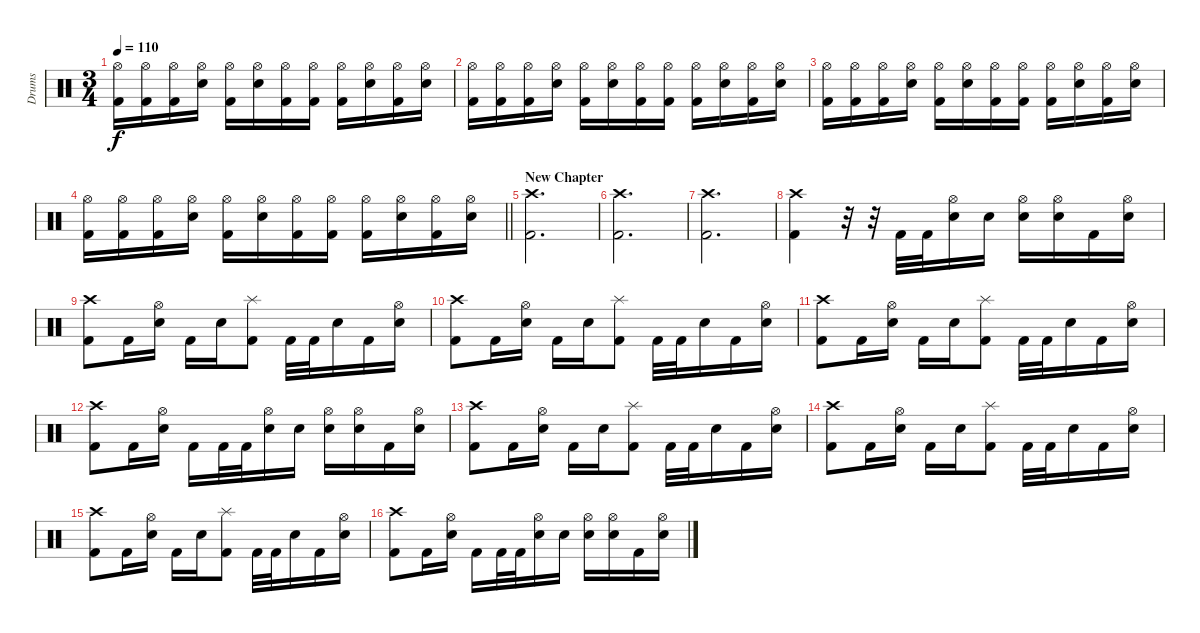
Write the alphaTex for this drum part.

\track ("Drums" "Drums") {instrument percussion}
\staff {score}
\articulation defaults
\ts (3 4)
\tempo 110
\clef neutral
\ks c
("Hi-Hat (open)" "Kick (hit) 2").16{dy f} ("Hi-Hat (open)" "Kick (hit) 2").16 ("Hi-Hat (open)" "Kick (hit) 2").16 ("Hi-Hat (open)" "Electric Snare (hit)").16 ("Hi-Hat (open)" "Kick (hit) 2").16 ("Hi-Hat (open)" "Electric Snare (hit)").16 ("Hi-Hat (open)" "Kick (hit) 2").16 ("Hi-Hat (open)" "Kick (hit) 2").16 ("Hi-Hat (open)" "Kick (hit) 2").16 ("Hi-Hat (open)" "Electric Snare (hit)").16 ("Hi-Hat (open)" "Kick (hit) 2").16 ("Hi-Hat (open)" "Electric Snare (hit)").16 |
("Hi-Hat (open)" "Kick (hit) 2").16 ("Hi-Hat (open)" "Kick (hit) 2").16 ("Hi-Hat (open)" "Kick (hit) 2").16 ("Hi-Hat (open)" "Electric Snare (hit)").16 ("Hi-Hat (open)" "Kick (hit) 2").16 ("Hi-Hat (open)" "Electric Snare (hit)").16 ("Hi-Hat (open)" "Kick (hit) 2").16 ("Hi-Hat (open)" "Kick (hit) 2").16 ("Hi-Hat (open)" "Kick (hit) 2").16 ("Hi-Hat (open)" "Electric Snare (hit)").16 ("Hi-Hat (open)" "Kick (hit) 2").16 ("Hi-Hat (open)" "Electric Snare (hit)").16 |
("Hi-Hat (open)" "Kick (hit) 2").16 ("Hi-Hat (open)" "Kick (hit) 2").16 ("Hi-Hat (open)" "Kick (hit) 2").16 ("Hi-Hat (open)" "Electric Snare (hit)").16 ("Hi-Hat (open)" "Kick (hit) 2").16 ("Hi-Hat (open)" "Electric Snare (hit)").16 ("Hi-Hat (open)" "Kick (hit) 2").16 ("Hi-Hat (open)" "Kick (hit) 2").16 ("Hi-Hat (open)" "Kick (hit) 2").16 ("Hi-Hat (open)" "Electric Snare (hit)").16 ("Hi-Hat (open)" "Kick (hit) 2").16 ("Hi-Hat (open)" "Electric Snare (hit)").16 |
\barLineRight lightlight
("Hi-Hat (open)" "Kick (hit) 2").16 ("Hi-Hat (open)" "Kick (hit) 2").16 ("Hi-Hat (open)" "Kick (hit) 2").16 ("Hi-Hat (open)" "Electric Snare (hit)").16 ("Hi-Hat (open)" "Kick (hit) 2").16 ("Hi-Hat (open)" "Electric Snare (hit)").16 ("Hi-Hat (open)" "Kick (hit) 2").16 ("Hi-Hat (open)" "Kick (hit) 2").16 ("Hi-Hat (open)" "Kick (hit) 2").16 ("Hi-Hat (open)" "Electric Snare (hit)").16 ("Hi-Hat (open)" "Kick (hit) 2").16 ("Hi-Hat (open)" "Electric Snare (hit)").16 |
\section ("" "New Chapter")
("Crash high (hit)" "Kick (hit) 2").2{d} |
("Crash high (hit)" "Kick (hit) 2").2{d} |
("Crash high (hit)" "Kick (hit) 2").2{d} |
("Crash high (hit)" "Kick (hit) 2").4 r.32 r.32 "Kick (hit) 2".32 "Kick (hit) 2".32 ("Hi-Hat (open)" "Electric Snare (hit)").16 "Electric Snare (hit)".16 ("Hi-Hat (open)" "Electric Snare (hit)").16 ("Hi-Hat (open)" "Electric Snare (hit)").16 "Kick (hit) 2".16 ("Hi-Hat (open)" "Electric Snare (hit)").16 |
("Crash high (hit)" "Kick (hit) 2").8 "Kick (hit) 2".16 ("Hi-Hat (open)" "Electric Snare (hit)").16 "Kick (hit) 2".16 "Electric Snare (hit)".16 ("Splash (hit)" "Kick (hit) 2").8 "Kick (hit) 2".32 "Kick (hit) 2".32 "Electric Snare (hit)".16 "Kick (hit) 2".16 ("Hi-Hat (open)" "Electric Snare (hit)").16 |
("Crash high (hit)" "Kick (hit) 2").8 "Kick (hit) 2".16 ("Hi-Hat (open)" "Electric Snare (hit)").16 "Kick (hit) 2".16 "Electric Snare (hit)".16 ("Splash (hit)" "Kick (hit) 2").8 "Kick (hit) 2".32 "Kick (hit) 2".32 "Electric Snare (hit)".16 "Kick (hit) 2".16 ("Hi-Hat (open)" "Electric Snare (hit)").16 |
("Crash high (hit)" "Kick (hit) 2").8 "Kick (hit) 2".16 ("Hi-Hat (open)" "Electric Snare (hit)").16 "Kick (hit) 2".16 "Electric Snare (hit)".16 ("Splash (hit)" "Kick (hit) 2").8 "Kick (hit) 2".32 "Kick (hit) 2".32 "Electric Snare (hit)".16 "Kick (hit) 2".16 ("Hi-Hat (open)" "Electric Snare (hit)").16 |
("Crash high (hit)" "Kick (hit) 2").8 "Kick (hit) 2".16 ("Hi-Hat (open)" "Electric Snare (hit)").16 "Kick (hit) 2".16 "Kick (hit) 2".32 "Kick (hit) 2".32 ("Hi-Hat (open)" "Electric Snare (hit)").16 "Electric Snare (hit)".16 ("Hi-Hat (open)" "Electric Snare (hit)").16 ("Hi-Hat (open)" "Electric Snare (hit)").16 "Kick (hit) 2".16 ("Hi-Hat (open)" "Electric Snare (hit)").16 |
("Crash high (hit)" "Kick (hit) 2").8 "Kick (hit) 2".16 ("Hi-Hat (open)" "Electric Snare (hit)").16 "Kick (hit) 2".16 "Electric Snare (hit)".16 ("Splash (hit)" "Kick (hit) 2").8 "Kick (hit) 2".32 "Kick (hit) 2".32 "Electric Snare (hit)".16 "Kick (hit) 2".16 ("Hi-Hat (open)" "Electric Snare (hit)").16 |
("Crash high (hit)" "Kick (hit) 2").8 "Kick (hit) 2".16 ("Hi-Hat (open)" "Electric Snare (hit)").16 "Kick (hit) 2".16 "Electric Snare (hit)".16 ("Splash (hit)" "Kick (hit) 2").8 "Kick (hit) 2".32 "Kick (hit) 2".32 "Electric Snare (hit)".16 "Kick (hit) 2".16 ("Hi-Hat (open)" "Electric Snare (hit)").16 |
("Crash high (hit)" "Kick (hit) 2").8 "Kick (hit) 2".16 ("Hi-Hat (open)" "Electric Snare (hit)").16 "Kick (hit) 2".16 "Electric Snare (hit)".16 ("Splash (hit)" "Kick (hit) 2").8 "Kick (hit) 2".32 "Kick (hit) 2".32 "Electric Snare (hit)".16 "Kick (hit) 2".16 ("Hi-Hat (open)" "Electric Snare (hit)").16 |
("Crash high (hit)" "Kick (hit) 2").8 "Kick (hit) 2".16 ("Hi-Hat (open)" "Electric Snare (hit)").16 "Kick (hit) 2".16 "Kick (hit) 2".32 "Kick (hit) 2".32 ("Hi-Hat (open)" "Electric Snare (hit)").16 "Electric Snare (hit)".16 ("Hi-Hat (open)" "Electric Snare (hit)").16 ("Hi-Hat (open)" "Electric Snare (hit)").16 "Kick (hit) 2".16 ("Hi-Hat (open)" "Electric Snare (hit)").16
